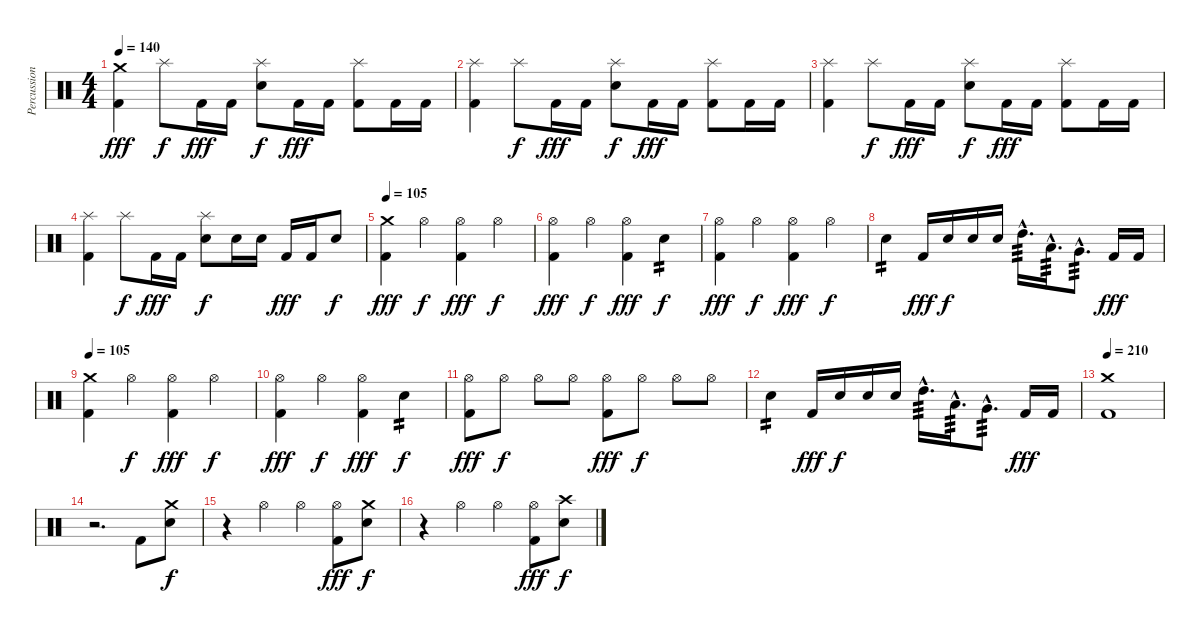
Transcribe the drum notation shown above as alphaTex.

\track ("Percussion" "Percussion") {instrument percussion}
\staff {score}
\articulation defaults
\ts (4 4)
\tempo 140
\clef neutral
\ks c
("Crash medium (hit)" "Kick (hit) 2").4{dy fff} "Splash (hit)".8{dy f} "Kick (hit) 2".16{dy fff} "Kick (hit) 2".16 ("Splash (hit)" "Electric Snare (hit)").8{dy f} "Kick (hit) 2".16{dy fff} "Kick (hit) 2".16 ("Splash (hit)" "Kick (hit) 2").8 "Kick (hit) 2".16 "Kick (hit) 2".16 |
("Splash (hit)" "Kick (hit) 2").4 "Splash (hit)".8{dy f} "Kick (hit) 2".16{dy fff} "Kick (hit) 2".16 ("Splash (hit)" "Electric Snare (hit)").8{dy f} "Kick (hit) 2".16{dy fff} "Kick (hit) 2".16 ("Splash (hit)" "Kick (hit) 2").8 "Kick (hit) 2".16 "Kick (hit) 2".16 |
("Splash (hit)" "Kick (hit) 2").4 "Splash (hit)".8{dy f} "Kick (hit) 2".16{dy fff} "Kick (hit) 2".16 ("Splash (hit)" "Electric Snare (hit)").8{dy f} "Kick (hit) 2".16{dy fff} "Kick (hit) 2".16 ("Splash (hit)" "Kick (hit) 2").8 "Kick (hit) 2".16 "Kick (hit) 2".16 |
("Splash (hit)" "Kick (hit) 2").4 "Splash (hit)".8{dy f} "Kick (hit) 2".16{dy fff} "Kick (hit) 2".16 ("Splash (hit)" "Electric Snare (hit)").8{dy f} "Electric Snare (hit)".16 "Electric Snare (hit)".16 "Kick (hit) 2".16{dy fff} "Kick (hit) 2".16 "Electric Snare (hit)".8{dy f} |
\tempo 105
("Crash medium (hit)" "Kick (hit) 2").4{dy fff} "Hi-Hat (open)".4{dy f} ("Hi-Hat (open)" "Kick (hit) 2").4{dy fff} "Hi-Hat (open)".4{dy f} |
("Hi-Hat (open)" "Kick (hit) 2").4{dy fff} "Hi-Hat (open)".4{dy f} ("Hi-Hat (open)" "Kick (hit) 2").4{dy fff} "Electric Snare (hit)".4{tp 2 dy f} |
("Hi-Hat (open)" "Kick (hit) 2").4{dy fff} "Hi-Hat (open)".4{dy f} ("Hi-Hat (open)" "Kick (hit) 2").4{dy fff} "Hi-Hat (open)".4{dy f} |
"Electric Snare (hit)".4{tp 2} "Kick (hit) 2".16{dy fff} "Electric Snare (hit)".16{dy f} "Electric Snare (hit)".16 "Electric Snare (hit)".16 "High Tom (hit)"{hac}.16{d tp 3} "Low Tom (hit)"{hac}.16{d tp 3} "Very Low Tom (hit)"{hac}.8{d tp 3} "Kick (hit) 2".16{dy fff} "Kick (hit) 2".16 |
\tempo 105
("Crash medium (hit)" "Kick (hit) 2").4 "Hi-Hat (open)".4{dy f} ("Hi-Hat (open)" "Kick (hit) 2").4{dy fff} "Hi-Hat (open)".4{dy f} |
("Hi-Hat (open)" "Kick (hit) 2").4{dy fff} "Hi-Hat (open)".4{dy f} ("Hi-Hat (open)" "Kick (hit) 2").4{dy fff} "Electric Snare (hit)".4{tp 2 dy f} |
("Hi-Hat (open)" "Kick (hit) 2").8{dy fff} "Hi-Hat (open)".8{dy f} "Hi-Hat (open)".8 "Hi-Hat (open)".8 ("Hi-Hat (open)" "Kick (hit) 2").8{dy fff} "Hi-Hat (open)".8{dy f} "Hi-Hat (open)".8 "Hi-Hat (open)".8 |
"Electric Snare (hit)".4{tp 2} "Kick (hit) 2".16{dy fff} "Electric Snare (hit)".16{dy f} "Electric Snare (hit)".16 "Electric Snare (hit)".16 "High Tom (hit)"{hac}.16{d tp 3} "Low Tom (hit)"{hac}.16{d tp 3} "Very Low Tom (hit)"{hac}.8{d tp 3} "Kick (hit) 2".16{dy fff} "Kick (hit) 2".16 |
\tempo 210
("Crash medium (hit)" "Kick (hit) 2").1 |
r.2{d} "Kick (hit) 2".8 ("Crash medium (hit)" "Electric Snare (hit)").8{dy f} |
r.4 "Hi-Hat (open)".4 "Hi-Hat (open)".4 ("Hi-Hat (open)" "Kick (hit) 2").8{dy fff} ("Crash medium (hit)" "Electric Snare (hit)").8{dy f} |
r.4 "Hi-Hat (open)".4 "Hi-Hat (open)".4 ("Hi-Hat (open)" "Kick (hit) 2").8{dy fff} ("Crash high (hit)" "Electric Snare (hit)").8{dy f}
